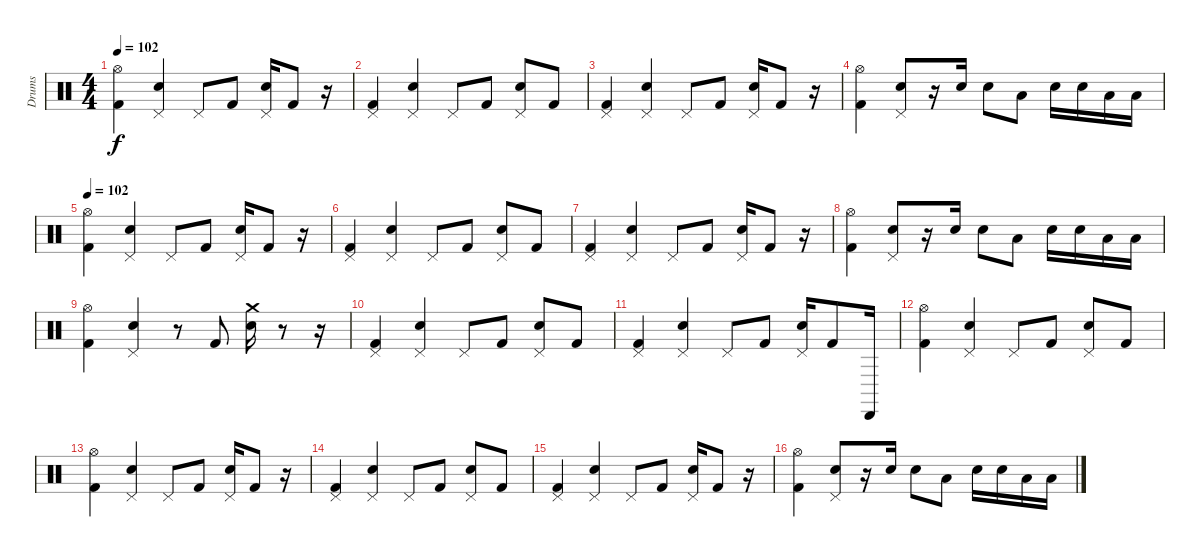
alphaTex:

\track ("Drums" "Drums") {instrument percussion}
\staff {score}
\articulation defaults
\ts (4 4)
\tempo 102
\clef neutral
\ks c
("Hi-Hat (open)" "Kick (hit) 2").4{dy f} ("Pedal Hi-Hat (hit)" "Electric Snare (hit)").4 "Pedal Hi-Hat (hit)".8 "Kick (hit) 2".8 ("Pedal Hi-Hat (hit)" "Electric Snare (hit)").16 "Kick (hit) 2".8 r.16 |
("Pedal Hi-Hat (hit)" "Kick (hit) 2").4 ("Pedal Hi-Hat (hit)" "Electric Snare (hit)").4 "Pedal Hi-Hat (hit)".8 "Kick (hit) 2".8 ("Pedal Hi-Hat (hit)" "Electric Snare (hit)").8 "Kick (hit) 2".8 |
("Pedal Hi-Hat (hit)" "Kick (hit) 2").4 ("Pedal Hi-Hat (hit)" "Electric Snare (hit)").4 "Pedal Hi-Hat (hit)".8 "Kick (hit) 2".8 ("Pedal Hi-Hat (hit)" "Electric Snare (hit)").16 "Kick (hit) 2".8 r.16 |
("Hi-Hat (open)" "Kick (hit) 2").4 ("Pedal Hi-Hat (hit)" "Electric Snare (hit)").8 r.16 "Electric Snare (hit)".16 "Electric Snare (hit)".8 "Low Tom (hit)".8 "Electric Snare (hit)".16 "Electric Snare (hit)".16 "Low Tom (hit)".16 "Low Tom (hit)".16 |
\tempo 102
("Hi-Hat (open)" "Kick (hit) 2").4 ("Pedal Hi-Hat (hit)" "Electric Snare (hit)").4 "Pedal Hi-Hat (hit)".8 "Kick (hit) 2".8 ("Pedal Hi-Hat (hit)" "Electric Snare (hit)").16 "Kick (hit) 2".8 r.16 |
("Pedal Hi-Hat (hit)" "Kick (hit) 2").4 ("Pedal Hi-Hat (hit)" "Electric Snare (hit)").4 "Pedal Hi-Hat (hit)".8 "Kick (hit) 2".8 ("Pedal Hi-Hat (hit)" "Electric Snare (hit)").8 "Kick (hit) 2".8 |
("Pedal Hi-Hat (hit)" "Kick (hit) 2").4 ("Pedal Hi-Hat (hit)" "Electric Snare (hit)").4 "Pedal Hi-Hat (hit)".8 "Kick (hit) 2".8 ("Pedal Hi-Hat (hit)" "Electric Snare (hit)").16 "Kick (hit) 2".8 r.16 |
("Hi-Hat (open)" "Kick (hit) 2").4 ("Pedal Hi-Hat (hit)" "Electric Snare (hit)").8 r.16 "Electric Snare (hit)".16 "Electric Snare (hit)".8 "Low Tom (hit)".8 "Electric Snare (hit)".16 "Electric Snare (hit)".16 "Low Tom (hit)".16 "Low Tom (hit)".16 |
("Hi-Hat (open)" "Kick (hit) 2").4 ("Pedal Hi-Hat (hit)" "Electric Snare (hit)").4 r.8 "Kick (hit) 2".8 ("Crash medium (hit)" "Electric Snare (hit)").16 r.8 r.16 |
("Pedal Hi-Hat (hit)" "Kick (hit) 2").4 ("Pedal Hi-Hat (hit)" "Electric Snare (hit)").4 "Pedal Hi-Hat (hit)".8 "Kick (hit) 2".8 ("Pedal Hi-Hat (hit)" "Electric Snare (hit)").8 "Kick (hit) 2".8 |
("Pedal Hi-Hat (hit)" "Kick (hit) 2").4 ("Pedal Hi-Hat (hit)" "Electric Snare (hit)").4 "Pedal Hi-Hat (hit)".8 "Kick (hit) 2".8 ("Pedal Hi-Hat (hit)" "Electric Snare (hit)").16 "Kick (hit) 2".8 "Cabasa (hit)".16 |
("Hi-Hat (open)" "Kick (hit) 2").4 ("Pedal Hi-Hat (hit)" "Electric Snare (hit)").4 "Pedal Hi-Hat (hit)".8 "Kick (hit) 2".8 ("Pedal Hi-Hat (hit)" "Electric Snare (hit)").8 "Kick (hit) 2".8 |
("Hi-Hat (open)" "Kick (hit) 2").4 ("Pedal Hi-Hat (hit)" "Electric Snare (hit)").4 "Pedal Hi-Hat (hit)".8 "Kick (hit) 2".8 ("Pedal Hi-Hat (hit)" "Electric Snare (hit)").16 "Kick (hit) 2".8 r.16 |
("Pedal Hi-Hat (hit)" "Kick (hit) 2").4 ("Pedal Hi-Hat (hit)" "Electric Snare (hit)").4 "Pedal Hi-Hat (hit)".8 "Kick (hit) 2".8 ("Pedal Hi-Hat (hit)" "Electric Snare (hit)").8 "Kick (hit) 2".8 |
("Pedal Hi-Hat (hit)" "Kick (hit) 2").4 ("Pedal Hi-Hat (hit)" "Electric Snare (hit)").4 "Pedal Hi-Hat (hit)".8 "Kick (hit) 2".8 ("Pedal Hi-Hat (hit)" "Electric Snare (hit)").16 "Kick (hit) 2".8 r.16 |
("Hi-Hat (open)" "Kick (hit) 2").4 ("Pedal Hi-Hat (hit)" "Electric Snare (hit)").8 r.16 "Electric Snare (hit)".16 "Electric Snare (hit)".8 "Low Tom (hit)".8 "Electric Snare (hit)".16 "Electric Snare (hit)".16 "Low Tom (hit)".16 "Low Tom (hit)".16
